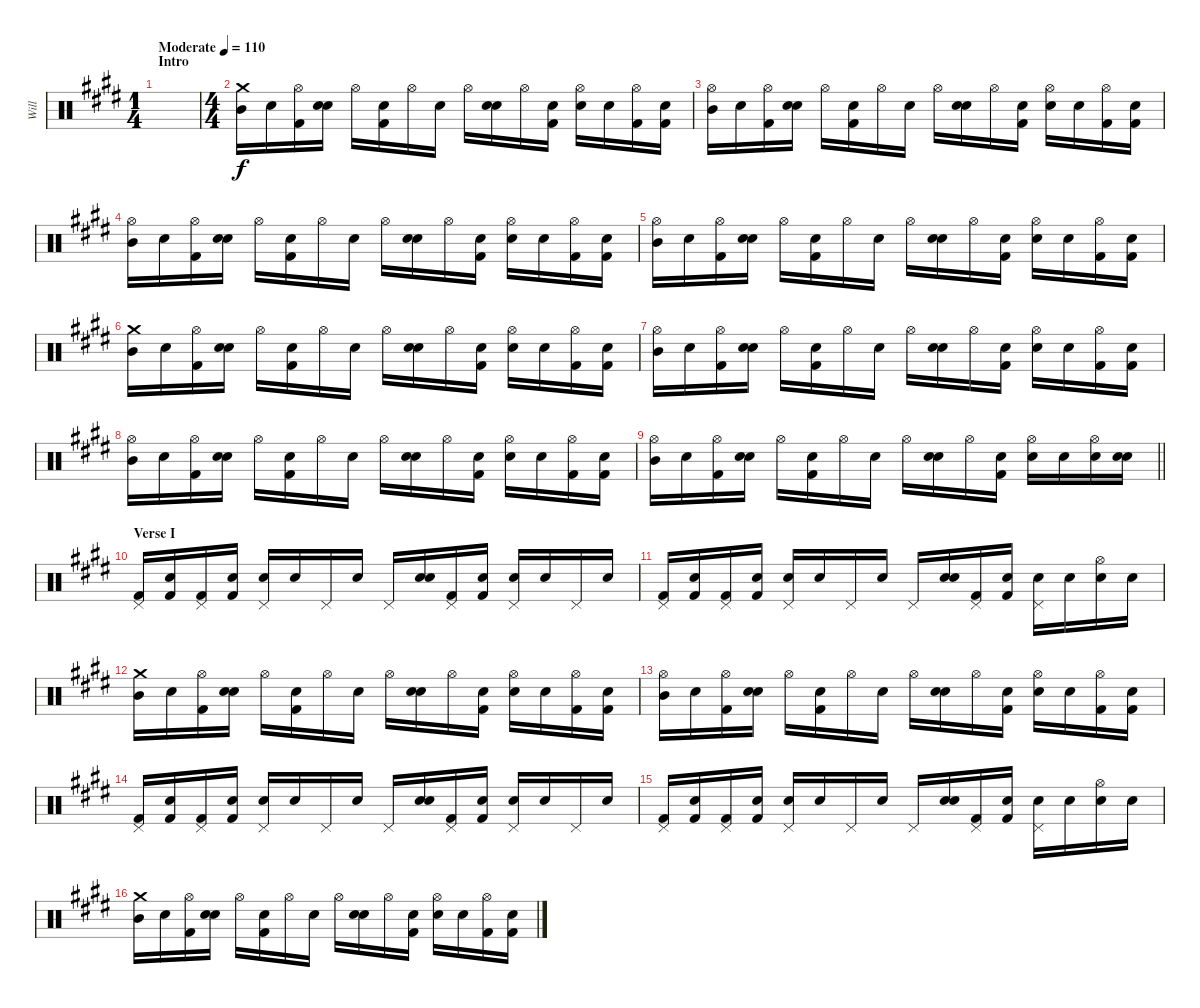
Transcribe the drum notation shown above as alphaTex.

\track ("Will" "Will") {instrument percussion}
\staff {score}
\articulation defaults
\ts (1 4)
\section ("" "Intro")
\tempo (110 "Moderate")
\clef neutral
\ks e
|
\ts (4 4)
("Crash medium (hit)" "Mid Tom (hit)").16 "Snare (hit)".16 ("Hi-Hat (open)" "Kick (hit) 2").16 ("Snare (hit)" "Electric Snare (hit)").16 "Hi-Hat (open)".16 ("Snare (hit)" "Kick (hit) 2").16 "Hi-Hat (open)".16 "Snare (hit)".16 "Hi-Hat (open)".16 ("Snare (hit)" "Electric Snare (hit)").16 "Hi-Hat (open)".16 ("Snare (hit)" "Kick (hit) 2").16 ("Hi-Hat (open)" "Electric Snare (hit)").16 "Snare (hit)".16 ("Hi-Hat (open)" "Kick (hit) 2").16 ("Snare (hit)" "Kick (hit) 2").16 |
("Hi-Hat (open)" "Mid Tom (hit)").16 "Snare (hit)".16 ("Hi-Hat (open)" "Kick (hit) 2").16 ("Snare (hit)" "Electric Snare (hit)").16 "Hi-Hat (open)".16 ("Snare (hit)" "Kick (hit) 2").16 "Hi-Hat (open)".16 "Snare (hit)".16 "Hi-Hat (open)".16 ("Snare (hit)" "Electric Snare (hit)").16 "Hi-Hat (open)".16 ("Snare (hit)" "Kick (hit) 2").16 ("Hi-Hat (open)" "Electric Snare (hit)").16 "Snare (hit)".16 ("Hi-Hat (open)" "Kick (hit) 2").16 ("Snare (hit)" "Kick (hit) 2").16 |
("Hi-Hat (open)" "Mid Tom (hit)").16 "Snare (hit)".16 ("Hi-Hat (open)" "Kick (hit) 2").16 ("Snare (hit)" "Electric Snare (hit)").16 "Hi-Hat (open)".16 ("Snare (hit)" "Kick (hit) 2").16 "Hi-Hat (open)".16 "Snare (hit)".16 "Hi-Hat (open)".16 ("Snare (hit)" "Electric Snare (hit)").16 "Hi-Hat (open)".16 ("Snare (hit)" "Kick (hit) 2").16 ("Hi-Hat (open)" "Electric Snare (hit)").16 "Snare (hit)".16 ("Hi-Hat (open)" "Kick (hit) 2").16 ("Snare (hit)" "Kick (hit) 2").16 |
("Hi-Hat (open)" "Mid Tom (hit)").16 "Snare (hit)".16 ("Hi-Hat (open)" "Kick (hit) 2").16 ("Snare (hit)" "Electric Snare (hit)").16 "Hi-Hat (open)".16 ("Snare (hit)" "Kick (hit) 2").16 "Hi-Hat (open)".16 "Snare (hit)".16 "Hi-Hat (open)".16 ("Snare (hit)" "Electric Snare (hit)").16 "Hi-Hat (open)".16 ("Snare (hit)" "Kick (hit) 2").16 ("Hi-Hat (open)" "Electric Snare (hit)").16 "Snare (hit)".16 ("Hi-Hat (open)" "Kick (hit) 2").16 ("Snare (hit)" "Kick (hit) 2").16 |
("Crash medium (hit)" "Mid Tom (hit)").16 "Snare (hit)".16 ("Hi-Hat (open)" "Kick (hit) 2").16 ("Snare (hit)" "Electric Snare (hit)").16 "Hi-Hat (open)".16 ("Snare (hit)" "Kick (hit) 2").16 "Hi-Hat (open)".16 "Snare (hit)".16 "Hi-Hat (open)".16 ("Snare (hit)" "Electric Snare (hit)").16 "Hi-Hat (open)".16 ("Snare (hit)" "Kick (hit) 2").16 ("Hi-Hat (open)" "Electric Snare (hit)").16 "Snare (hit)".16 ("Hi-Hat (open)" "Kick (hit) 2").16 ("Snare (hit)" "Kick (hit) 2").16 |
("Hi-Hat (open)" "Mid Tom (hit)").16 "Snare (hit)".16 ("Hi-Hat (open)" "Kick (hit) 2").16 ("Snare (hit)" "Electric Snare (hit)").16 "Hi-Hat (open)".16 ("Snare (hit)" "Kick (hit) 2").16 "Hi-Hat (open)".16 "Snare (hit)".16 "Hi-Hat (open)".16 ("Snare (hit)" "Electric Snare (hit)").16 "Hi-Hat (open)".16 ("Snare (hit)" "Kick (hit) 2").16 ("Hi-Hat (open)" "Electric Snare (hit)").16 "Snare (hit)".16 ("Hi-Hat (open)" "Kick (hit) 2").16 ("Snare (hit)" "Kick (hit) 2").16 |
("Hi-Hat (open)" "Mid Tom (hit)").16 "Snare (hit)".16 ("Hi-Hat (open)" "Kick (hit) 2").16 ("Snare (hit)" "Electric Snare (hit)").16 "Hi-Hat (open)".16 ("Snare (hit)" "Kick (hit) 2").16 "Hi-Hat (open)".16 "Snare (hit)".16 "Hi-Hat (open)".16 ("Snare (hit)" "Electric Snare (hit)").16 "Hi-Hat (open)".16 ("Snare (hit)" "Kick (hit) 2").16 ("Hi-Hat (open)" "Electric Snare (hit)").16 "Snare (hit)".16 ("Hi-Hat (open)" "Kick (hit) 2").16 ("Snare (hit)" "Kick (hit) 2").16 |
\barLineRight lightlight
("Hi-Hat (open)" "Mid Tom (hit)").16 "Snare (hit)".16 ("Hi-Hat (open)" "Kick (hit) 2").16 ("Snare (hit)" "Electric Snare (hit)").16 "Hi-Hat (open)".16 ("Snare (hit)" "Kick (hit) 2").16 "Hi-Hat (open)".16 "Snare (hit)".16 "Hi-Hat (open)".16 ("Snare (hit)" "Electric Snare (hit)").16 "Hi-Hat (open)".16 ("Snare (hit)" "Kick (hit) 2").16 ("Hi-Hat (open)" "Electric Snare (hit)").16 "Snare (hit)".16 ("Hi-Hat (open)" "Electric Snare (hit)").16 ("Snare (hit)" "Electric Snare (hit)").16 |
\section ("" "Verse I")
("Pedal Hi-Hat (hit)" "Kick (hit) 2").16{volume 10} ("Snare (hit)" "Kick (hit) 2").16 ("Pedal Hi-Hat (hit)" "Kick (hit) 2").16 ("Snare (hit)" "Kick (hit) 2").16 ("Pedal Hi-Hat (hit)" "Electric Snare (hit)").16 "Snare (hit)".16 "Pedal Hi-Hat (hit)".16 "Snare (hit)".16 "Pedal Hi-Hat (hit)".16 ("Snare (hit)" "Electric Snare (hit)").16 ("Pedal Hi-Hat (hit)" "Kick (hit) 2").16 ("Snare (hit)" "Kick (hit) 2").16 ("Pedal Hi-Hat (hit)" "Electric Snare (hit)").16 "Snare (hit)".16 "Pedal Hi-Hat (hit)".16 "Snare (hit)".16 |
("Pedal Hi-Hat (hit)" "Kick (hit) 2").16 ("Snare (hit)" "Kick (hit) 2").16 ("Pedal Hi-Hat (hit)" "Kick (hit) 2").16 ("Snare (hit)" "Kick (hit) 2").16 ("Pedal Hi-Hat (hit)" "Electric Snare (hit)").16 "Snare (hit)".16 "Pedal Hi-Hat (hit)".16 "Snare (hit)".16 "Pedal Hi-Hat (hit)".16 ("Snare (hit)" "Electric Snare (hit)").16 ("Pedal Hi-Hat (hit)" "Kick (hit) 2").16 ("Snare (hit)" "Kick (hit) 2").16 ("Pedal Hi-Hat (hit)" "Electric Snare (hit)").16 "Snare (hit)".16 ("Hi-Hat (open)" "Electric Snare (hit)").16 "Snare (hit)".16 |
("Crash medium (hit)" "Mid Tom (hit)").16{volume 13} "Snare (hit)".16 ("Hi-Hat (open)" "Kick (hit) 2").16 ("Snare (hit)" "Electric Snare (hit)").16 "Hi-Hat (open)".16 ("Snare (hit)" "Kick (hit) 2").16 "Hi-Hat (open)".16 "Snare (hit)".16 "Hi-Hat (open)".16 ("Snare (hit)" "Electric Snare (hit)").16 "Hi-Hat (open)".16 ("Snare (hit)" "Kick (hit) 2").16 ("Hi-Hat (open)" "Electric Snare (hit)").16 "Snare (hit)".16 ("Hi-Hat (open)" "Kick (hit) 2").16 ("Snare (hit)" "Kick (hit) 2").16 |
("Hi-Hat (open)" "Mid Tom (hit)").16 "Snare (hit)".16 ("Hi-Hat (open)" "Kick (hit) 2").16 ("Snare (hit)" "Electric Snare (hit)").16 "Hi-Hat (open)".16 ("Snare (hit)" "Kick (hit) 2").16 "Hi-Hat (open)".16 "Snare (hit)".16 "Hi-Hat (open)".16 ("Snare (hit)" "Electric Snare (hit)").16 "Hi-Hat (open)".16 ("Snare (hit)" "Kick (hit) 2").16 ("Hi-Hat (open)" "Electric Snare (hit)").16 "Snare (hit)".16 ("Hi-Hat (open)" "Kick (hit) 2").16 ("Snare (hit)" "Kick (hit) 2").16 |
("Pedal Hi-Hat (hit)" "Kick (hit) 2").16{volume 10} ("Snare (hit)" "Kick (hit) 2").16 ("Pedal Hi-Hat (hit)" "Kick (hit) 2").16 ("Snare (hit)" "Kick (hit) 2").16 ("Pedal Hi-Hat (hit)" "Electric Snare (hit)").16 "Snare (hit)".16 "Pedal Hi-Hat (hit)".16 "Snare (hit)".16 "Pedal Hi-Hat (hit)".16 ("Snare (hit)" "Electric Snare (hit)").16 ("Pedal Hi-Hat (hit)" "Kick (hit) 2").16 ("Snare (hit)" "Kick (hit) 2").16 ("Pedal Hi-Hat (hit)" "Electric Snare (hit)").16 "Snare (hit)".16 "Pedal Hi-Hat (hit)".16 "Snare (hit)".16 |
("Pedal Hi-Hat (hit)" "Kick (hit) 2").16 ("Snare (hit)" "Kick (hit) 2").16 ("Pedal Hi-Hat (hit)" "Kick (hit) 2").16 ("Snare (hit)" "Kick (hit) 2").16 ("Pedal Hi-Hat (hit)" "Electric Snare (hit)").16 "Snare (hit)".16 "Pedal Hi-Hat (hit)".16 "Snare (hit)".16 "Pedal Hi-Hat (hit)".16 ("Snare (hit)" "Electric Snare (hit)").16 ("Pedal Hi-Hat (hit)" "Kick (hit) 2").16 ("Snare (hit)" "Kick (hit) 2").16 ("Pedal Hi-Hat (hit)" "Electric Snare (hit)").16 "Snare (hit)".16 ("Hi-Hat (open)" "Electric Snare (hit)").16 "Snare (hit)".16 |
("Crash medium (hit)" "Mid Tom (hit)").16{volume 13} "Snare (hit)".16 ("Hi-Hat (open)" "Kick (hit) 2").16 ("Snare (hit)" "Electric Snare (hit)").16 "Hi-Hat (open)".16 ("Snare (hit)" "Kick (hit) 2").16 "Hi-Hat (open)".16 "Snare (hit)".16 "Hi-Hat (open)".16 ("Snare (hit)" "Electric Snare (hit)").16 "Hi-Hat (open)".16 ("Snare (hit)" "Kick (hit) 2").16 ("Hi-Hat (open)" "Electric Snare (hit)").16 "Snare (hit)".16 ("Hi-Hat (open)" "Kick (hit) 2").16 ("Snare (hit)" "Kick (hit) 2").16
